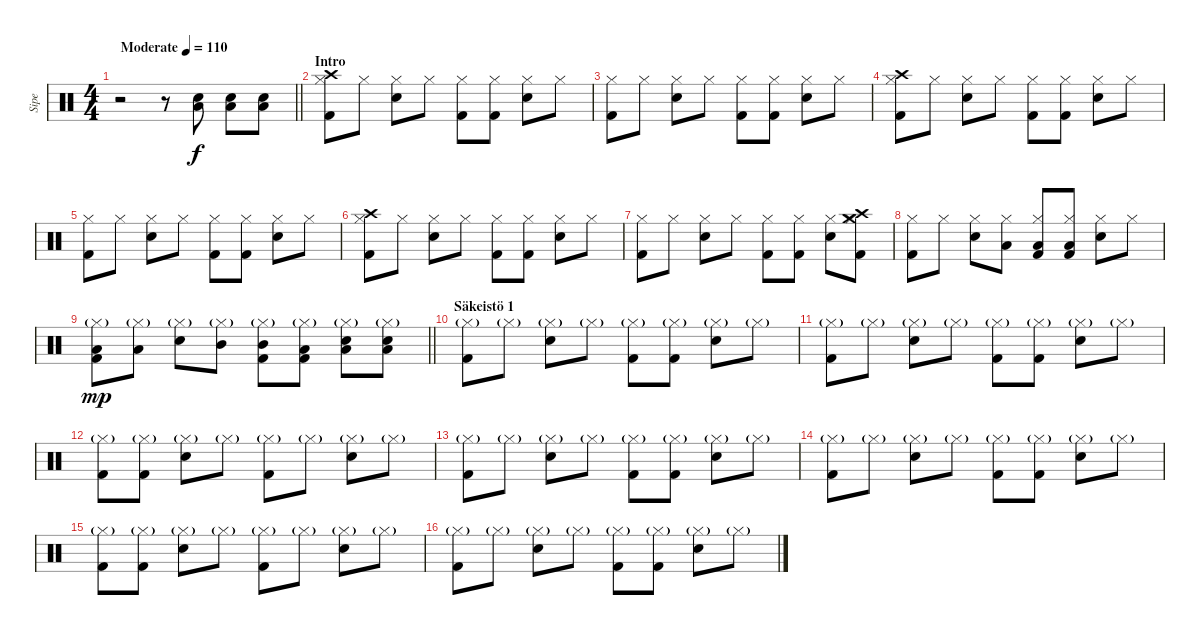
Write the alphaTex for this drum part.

\track ("Sipe" "Sipe") {instrument percussion}
\staff {score}
\articulation defaults
\ts (4 4)
\tempo (110 "Moderate")
\clef neutral
\barLineRight lightlight
\ks c
r.2{dy f} r.8 ("Snare (hit) 2" "Low Tom (hit)").8 ("Snare (hit) 2" "Low Tom (hit)").8 ("Snare (hit) 2" "Low Tom (hit)").8 |
\section ("" "Intro")
("Hi-Hat (closed)" "Kick (hit) 2" "Crash high (hit)").8 "Hi-Hat (closed)".8 ("Hi-Hat (closed)" "Snare (hit) 2").8 "Hi-Hat (closed)".8 ("Hi-Hat (closed)" "Kick (hit) 2").8 ("Hi-Hat (closed)" "Kick (hit) 2").8 ("Hi-Hat (closed)" "Snare (hit) 2").8 "Hi-Hat (closed)".8 |
("Hi-Hat (closed)" "Kick (hit) 2").8 "Hi-Hat (closed)".8 ("Hi-Hat (closed)" "Snare (hit) 2").8 "Hi-Hat (closed)".8 ("Hi-Hat (closed)" "Kick (hit) 2").8 ("Hi-Hat (closed)" "Kick (hit) 2").8 ("Hi-Hat (closed)" "Snare (hit) 2").8 "Hi-Hat (closed)".8 |
("Hi-Hat (closed)" "Kick (hit) 2" "Crash high (hit)").8 "Hi-Hat (closed)".8 ("Hi-Hat (closed)" "Snare (hit) 2").8 "Hi-Hat (closed)".8 ("Hi-Hat (closed)" "Kick (hit) 2").8 ("Hi-Hat (closed)" "Kick (hit) 2").8 ("Hi-Hat (closed)" "Snare (hit) 2").8 "Hi-Hat (closed)".8 |
("Hi-Hat (closed)" "Kick (hit) 2").8 "Hi-Hat (closed)".8 ("Hi-Hat (closed)" "Snare (hit) 2").8 "Hi-Hat (closed)".8 ("Hi-Hat (closed)" "Kick (hit) 2").8 ("Hi-Hat (closed)" "Kick (hit) 2").8 ("Hi-Hat (closed)" "Snare (hit) 2").8 "Hi-Hat (closed)".8 |
("Hi-Hat (closed)" "Kick (hit) 2" "Crash high (hit)").8 "Hi-Hat (closed)".8 ("Hi-Hat (closed)" "Snare (hit) 2").8 "Hi-Hat (closed)".8 ("Hi-Hat (closed)" "Kick (hit) 2").8 ("Hi-Hat (closed)" "Kick (hit) 2").8 ("Hi-Hat (closed)" "Snare (hit) 2").8 "Hi-Hat (closed)".8 |
("Hi-Hat (closed)" "Kick (hit) 2").8 "Hi-Hat (closed)".8 ("Hi-Hat (closed)" "Snare (hit) 2").8 "Hi-Hat (closed)".8 ("Hi-Hat (closed)" "Kick (hit) 2").8 ("Hi-Hat (closed)" "Kick (hit) 2").8 ("Hi-Hat (closed)" "Snare (hit) 2").8 ("Kick (hit) 2" "Hi-Hat (closed)" "Crash medium (hit)" "Crash high (hit)").8 |
("Hi-Hat (closed)" "Kick (hit) 2").8 "Hi-Hat (closed)".8 ("Hi-Hat (closed)" "Snare (hit) 2").8 ("Hi-Hat (closed)" "Low Tom (hit)").8 ("Hi-Hat (closed)" "Kick (hit) 2" "Low Tom (hit)").8 ("Hi-Hat (closed)" "Kick (hit) 2" "Low Tom (hit)").8 ("Hi-Hat (closed)" "Snare (hit) 2").8 "Hi-Hat (closed)".8 |
\barLineRight lightlight
("Hi-Hat (closed)"{g} "Kick (hit) 2" "Low Tom (hit)").8{dy mp} ("Hi-Hat (closed)"{g} "Low Tom (hit)").8 ("Hi-Hat (closed)"{g} "Snare (hit) 2").8 ("Hi-Hat (closed)"{g} "Mid Tom (hit)").8 ("Hi-Hat (closed)"{g} "Kick (hit) 2" "Mid Tom (hit)").8 ("Hi-Hat (closed)"{g} "Kick (hit) 2" "Low Tom (hit)").8 ("Hi-Hat (closed)"{g} "Snare (hit) 2" "Low Tom (hit)").8 ("Hi-Hat (closed)"{g} "Snare (hit) 2" "Low Tom (hit)").8 |
\section ("" "Säkeistö 1")
("Hi-Hat (closed)"{g} "Kick (hit) 2").8 "Hi-Hat (closed)"{g}.8 ("Hi-Hat (closed)"{g} "Snare (hit) 2").8 "Hi-Hat (closed)"{g}.8 ("Hi-Hat (closed)"{g} "Kick (hit) 2").8 ("Hi-Hat (closed)"{g} "Kick (hit) 2").8 ("Hi-Hat (closed)"{g} "Snare (hit) 2").8 "Hi-Hat (closed)"{g}.8 |
("Hi-Hat (closed)"{g} "Kick (hit) 2").8 "Hi-Hat (closed)"{g}.8 ("Hi-Hat (closed)"{g} "Snare (hit) 2").8 "Hi-Hat (closed)"{g}.8 ("Hi-Hat (closed)"{g} "Kick (hit) 2").8 ("Hi-Hat (closed)"{g} "Kick (hit) 2").8 ("Hi-Hat (closed)"{g} "Snare (hit) 2").8 "Hi-Hat (closed)"{g}.8 |
("Hi-Hat (closed)"{g} "Kick (hit) 2").8 ("Hi-Hat (closed)"{g} "Kick (hit) 2").8 ("Hi-Hat (closed)"{g} "Snare (hit) 2").8 "Hi-Hat (closed)"{g}.8 ("Hi-Hat (closed)"{g} "Kick (hit) 2").8 "Hi-Hat (closed)"{g}.8 ("Hi-Hat (closed)"{g} "Snare (hit) 2").8 "Hi-Hat (closed)"{g}.8 |
("Hi-Hat (closed)"{g} "Kick (hit) 2").8 "Hi-Hat (closed)"{g}.8 ("Hi-Hat (closed)"{g} "Snare (hit) 2").8 "Hi-Hat (closed)"{g}.8 ("Hi-Hat (closed)"{g} "Kick (hit) 2").8 ("Hi-Hat (closed)"{g} "Kick (hit) 2").8 ("Hi-Hat (closed)"{g} "Snare (hit) 2").8 "Hi-Hat (closed)"{g}.8 |
("Hi-Hat (closed)"{g} "Kick (hit) 2").8 "Hi-Hat (closed)"{g}.8 ("Hi-Hat (closed)"{g} "Snare (hit) 2").8 "Hi-Hat (closed)"{g}.8 ("Hi-Hat (closed)"{g} "Kick (hit) 2").8 ("Hi-Hat (closed)"{g} "Kick (hit) 2").8 ("Hi-Hat (closed)"{g} "Snare (hit) 2").8 "Hi-Hat (closed)"{g}.8 |
("Hi-Hat (closed)"{g} "Kick (hit) 2").8 ("Hi-Hat (closed)"{g} "Kick (hit) 2").8 ("Hi-Hat (closed)"{g} "Snare (hit) 2").8 "Hi-Hat (closed)"{g}.8 ("Hi-Hat (closed)"{g} "Kick (hit) 2").8 "Hi-Hat (closed)"{g}.8 ("Hi-Hat (closed)"{g} "Snare (hit) 2").8 "Hi-Hat (closed)"{g}.8 |
("Hi-Hat (closed)"{g} "Kick (hit) 2").8 "Hi-Hat (closed)"{g}.8 ("Hi-Hat (closed)"{g} "Snare (hit) 2").8 "Hi-Hat (closed)"{g}.8 ("Hi-Hat (closed)"{g} "Kick (hit) 2").8 ("Hi-Hat (closed)"{g} "Kick (hit) 2").8 ("Hi-Hat (closed)"{g} "Snare (hit) 2").8 "Hi-Hat (closed)"{g}.8
